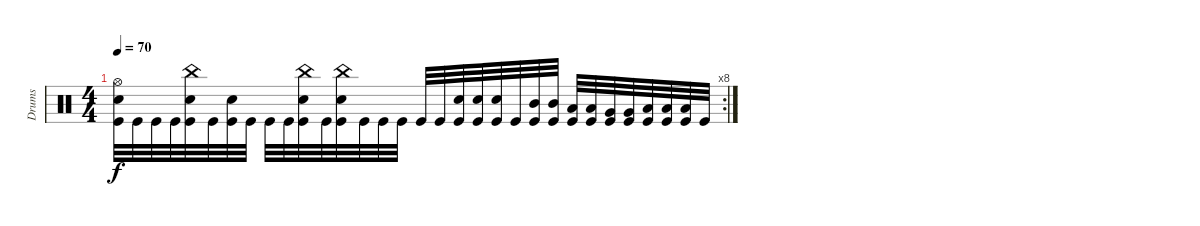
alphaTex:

\track ("Drums" "Drums") {instrument percussion}
\staff {score}
\articulation defaults
\rc 8
\ts (4 4)
\tempo 70
\clef neutral
\ks c
("Hi-Hat (open)" "Electric Snare (hit)" "Kick (hit)").32{dy f} "Kick (hit)".32 "Kick (hit)".32 "Kick (hit)".32 ("China (hit)" "Electric Snare (hit)" "Kick (hit)").32 "Kick (hit)".32 ("Electric Snare (hit)" "Kick (hit)").32 "Kick (hit)".32 "Kick (hit)".32 "Kick (hit)".32 ("China (hit)" "Electric Snare (hit)" "Kick (hit)").32 "Kick (hit)".32 ("China (hit)" "Electric Snare (hit)" "Kick (hit)").32 "Kick (hit)".32 "Kick (hit)".32 "Kick (hit)".32 "Kick (hit)".32 "Kick (hit)".32 ("Electric Snare (hit)" "Kick (hit)").32 ("Electric Snare (hit)" "Kick (hit)").32 ("Electric Snare (hit)" "Kick (hit)").32 "Kick (hit)".32 ("Mid Tom (hit)" "Kick (hit)").32 ("Mid Tom (hit)" "Kick (hit)").32 ("Low Tom (hit)" "Kick (hit)").32 ("Low Tom (hit)" "Kick (hit)").32 ("Very Low Tom (hit)" "Kick (hit)").32 ("Very Low Tom (hit)" "Kick (hit)").32 ("Low Floor Tom (hit)" "Kick (hit)").32 ("Low Floor Tom (hit)" "Kick (hit)").32 ("Low Floor Tom (hit)" "Kick (hit)").32 "Kick (hit)".32
